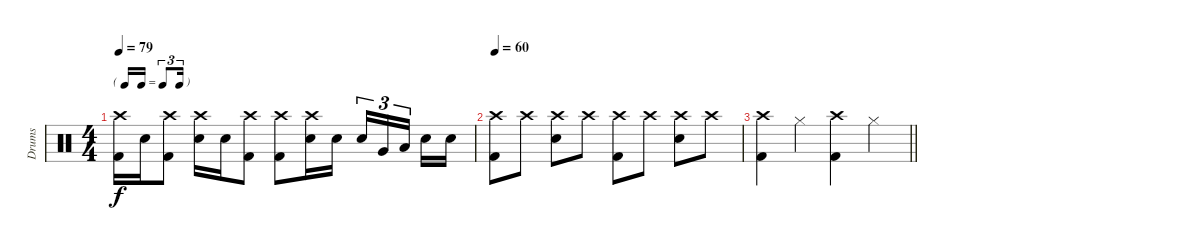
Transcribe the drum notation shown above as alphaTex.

\track ("Drums" "Drums") {instrument percussion}
\staff {score}
\articulation defaults
\ts (4 4)
\tf triplet16th
\tempo 79
\clef neutral
\ks c
("Crash high (hit)" "Kick (hit) 2").16{dy f} "Electric Snare (hit)".16 ("Crash high (hit)" "Kick (hit) 2").8 ("Crash high (hit)" "Electric Snare (hit)").16 "Electric Snare (hit)".16 ("Crash high (hit)" "Kick (hit) 2").8 ("Crash high (hit)" "Kick (hit) 2").8 ("Crash high (hit)" "Electric Snare (hit)").16 "Electric Snare (hit)".16 "Electric Snare (hit)".16{tu (3 2)} "Very Low Tom (hit)".16{tu (3 2)} "Low Floor Tom (hit)".16{tu (3 2) beam splitsecondary} "Electric Snare (hit)".16 "Electric Snare (hit)".16 |
\tempo 60
("Crash high (hit)" "Kick (hit) 2").8 "Crash high (hit)".8 ("Crash high (hit)" "Electric Snare (hit)").8 "Crash high (hit)".8 ("Crash high (hit)" "Kick (hit) 2").8 "Crash high (hit)".8 ("Crash high (hit)" "Electric Snare (hit)").8 "Crash high (hit)".8 |
\barLineRight lightlight
("Crash high (hit)" "Kick (hit) 2").4 "Hi-Hat (closed)".4 ("Crash high (hit)" "Kick (hit) 2").4 "Hi-Hat (closed)".4
